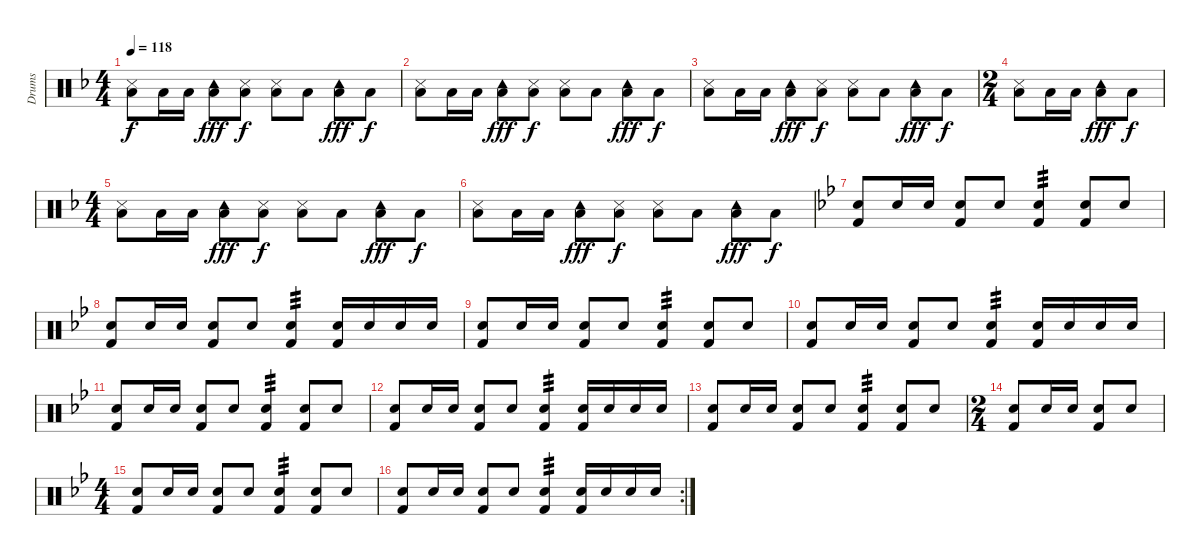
\track ("Drums" "Drums") {instrument percussion}
\staff {score}
\articulation defaults
\ts (4 4)
\tempo 118
\clef neutral
\ks dminor
("Metronome (hit)" "Low Tom (hit)").8{dy f} "Low Tom (hit)".16 "Low Tom (hit)".16 ("Low Tom (hit)" "Tambourine (hit)").8{dy fff} ("Metronome (hit)" "Low Tom (hit)").8{dy f} ("Metronome (hit)" "Low Tom (hit)").8 "Low Tom (hit)".8 ("Low Tom (hit)" "Tambourine (hit)").8{dy fff} "Low Tom (hit)".8{dy f} |
("Metronome (hit)" "Low Tom (hit)").8 "Low Tom (hit)".16 "Low Tom (hit)".16 ("Low Tom (hit)" "Tambourine (hit)").8{dy fff} ("Metronome (hit)" "Low Tom (hit)").8{dy f} ("Metronome (hit)" "Low Tom (hit)").8 "Low Tom (hit)".8 ("Low Tom (hit)" "Tambourine (hit)").8{dy fff} "Low Tom (hit)".8{dy f} |
("Metronome (hit)" "Low Tom (hit)").8 "Low Tom (hit)".16 "Low Tom (hit)".16 ("Low Tom (hit)" "Tambourine (hit)").8{dy fff} ("Metronome (hit)" "Low Tom (hit)").8{dy f} ("Metronome (hit)" "Low Tom (hit)").8 "Low Tom (hit)".8 ("Low Tom (hit)" "Tambourine (hit)").8{dy fff} "Low Tom (hit)".8{dy f} |
\ts (2 4)
("Metronome (hit)" "Low Tom (hit)").8 "Low Tom (hit)".16 "Low Tom (hit)".16 ("Low Tom (hit)" "Tambourine (hit)").8{dy fff} "Low Tom (hit)".8{dy f} |
\ts (4 4)
("Metronome (hit)" "Low Tom (hit)").8 "Low Tom (hit)".16 "Low Tom (hit)".16 ("Low Tom (hit)" "Tambourine (hit)").8{dy fff} ("Metronome (hit)" "Low Tom (hit)").8{dy f} ("Metronome (hit)" "Low Tom (hit)").8 "Low Tom (hit)".8 ("Low Tom (hit)" "Tambourine (hit)").8{dy fff} "Low Tom (hit)".8{dy f} |
("Metronome (hit)" "Low Tom (hit)").8 "Low Tom (hit)".16 "Low Tom (hit)".16 ("Low Tom (hit)" "Tambourine (hit)").8{dy fff} ("Metronome (hit)" "Low Tom (hit)").8{dy f} ("Metronome (hit)" "Low Tom (hit)").8 "Low Tom (hit)".8 ("Low Tom (hit)" "Tambourine (hit)").8{dy fff} "Low Tom (hit)".8{dy f} |
\ks gminor
("Kick (hit) 2" "Snare (hit) 2").8 "Snare (hit) 2".16 "Snare (hit) 2".16 ("Kick (hit) 2" "Snare (hit) 2").8 "Snare (hit) 2".8 ("Kick (hit) 2" "Snare (hit) 2").4{tp 3} ("Kick (hit) 2" "Snare (hit) 2").8 "Snare (hit) 2".8 |
("Kick (hit) 2" "Snare (hit) 2").8 "Snare (hit) 2".16 "Snare (hit) 2".16 ("Kick (hit) 2" "Snare (hit) 2").8 "Snare (hit) 2".8 ("Kick (hit) 2" "Snare (hit) 2").4{tp 3} ("Kick (hit) 2" "Snare (hit) 2").16 "Snare (hit) 2".16 "Snare (hit) 2".16 "Snare (hit) 2".16 |
("Kick (hit) 2" "Snare (hit) 2").8 "Snare (hit) 2".16 "Snare (hit) 2".16 ("Kick (hit) 2" "Snare (hit) 2").8 "Snare (hit) 2".8 ("Kick (hit) 2" "Snare (hit) 2").4{tp 3} ("Kick (hit) 2" "Snare (hit) 2").8 "Snare (hit) 2".8 |
("Kick (hit) 2" "Snare (hit) 2").8 "Snare (hit) 2".16 "Snare (hit) 2".16 ("Kick (hit) 2" "Snare (hit) 2").8 "Snare (hit) 2".8 ("Kick (hit) 2" "Snare (hit) 2").4{tp 3} ("Kick (hit) 2" "Snare (hit) 2").16 "Snare (hit) 2".16 "Snare (hit) 2".16 "Snare (hit) 2".16 |
("Kick (hit) 2" "Snare (hit) 2").8 "Snare (hit) 2".16 "Snare (hit) 2".16 ("Kick (hit) 2" "Snare (hit) 2").8 "Snare (hit) 2".8 ("Kick (hit) 2" "Snare (hit) 2").4{tp 3} ("Kick (hit) 2" "Snare (hit) 2").8 "Snare (hit) 2".8 |
("Kick (hit) 2" "Snare (hit) 2").8 "Snare (hit) 2".16 "Snare (hit) 2".16 ("Kick (hit) 2" "Snare (hit) 2").8 "Snare (hit) 2".8 ("Kick (hit) 2" "Snare (hit) 2").4{tp 3} ("Kick (hit) 2" "Snare (hit) 2").16 "Snare (hit) 2".16 "Snare (hit) 2".16 "Snare (hit) 2".16 |
("Kick (hit) 2" "Snare (hit) 2").8 "Snare (hit) 2".16 "Snare (hit) 2".16 ("Kick (hit) 2" "Snare (hit) 2").8 "Snare (hit) 2".8 ("Kick (hit) 2" "Snare (hit) 2").4{tp 3} ("Kick (hit) 2" "Snare (hit) 2").8 "Snare (hit) 2".8 |
\ts (2 4)
("Kick (hit) 2" "Snare (hit) 2").8 "Snare (hit) 2".16 "Snare (hit) 2".16 ("Kick (hit) 2" "Snare (hit) 2").8 "Snare (hit) 2".8 |
\ts (4 4)
("Kick (hit) 2" "Snare (hit) 2").8 "Snare (hit) 2".16 "Snare (hit) 2".16 ("Kick (hit) 2" "Snare (hit) 2").8 "Snare (hit) 2".8 ("Kick (hit) 2" "Snare (hit) 2").4{tp 3} ("Kick (hit) 2" "Snare (hit) 2").8 "Snare (hit) 2".8 |
\rc 2
("Kick (hit) 2" "Snare (hit) 2").8 "Snare (hit) 2".16 "Snare (hit) 2".16 ("Kick (hit) 2" "Snare (hit) 2").8 "Snare (hit) 2".8 ("Kick (hit) 2" "Snare (hit) 2").4{tp 3} ("Kick (hit) 2" "Snare (hit) 2").16 "Snare (hit) 2".16 "Snare (hit) 2".16 "Snare (hit) 2".16
